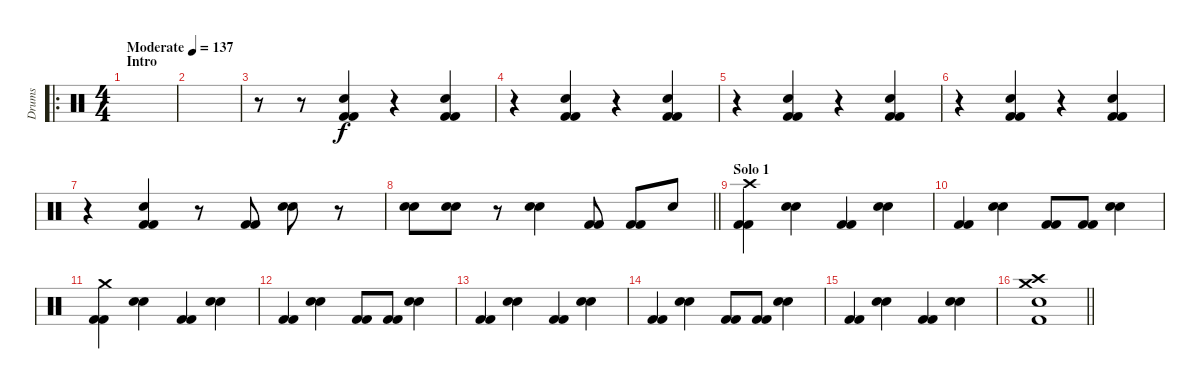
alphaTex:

\track ("Drums" "Drums") {instrument percussion}
\staff {score}
\articulation defaults
\ro
\ts (4 4)
\section ("" "Intro")
\tempo (137 "Moderate")
\clef neutral
\ks c
|
|
r.8 r.8 ("Kick (hit) 2" "Kick (hit) 2" "Electric Snare (hit)").4 r.4 ("Kick (hit) 2" "Kick (hit) 2" "Electric Snare (hit)").4 |
r.4 ("Kick (hit) 2" "Kick (hit) 2" "Electric Snare (hit)").4 r.4 ("Kick (hit) 2" "Kick (hit) 2" "Electric Snare (hit)").4 |
r.4 ("Kick (hit) 2" "Kick (hit) 2" "Electric Snare (hit)").4 r.4 ("Kick (hit) 2" "Kick (hit) 2" "Electric Snare (hit)").4 |
r.4 ("Kick (hit) 2" "Kick (hit) 2" "Electric Snare (hit)").4 r.4 ("Kick (hit) 2" "Kick (hit) 2" "Electric Snare (hit)").4 |
r.4 ("Kick (hit) 2" "Kick (hit) 2" "Electric Snare (hit)").4 r.8 ("Kick (hit) 2" "Kick (hit) 2").8 ("Electric Snare (hit)" "Electric Snare (hit)").8 r.8 |
\barLineRight lightlight
("Electric Snare (hit)" "Electric Snare (hit)").8 ("Electric Snare (hit)" "Electric Snare (hit)").8 r.8 ("Electric Snare (hit)" "Electric Snare (hit)").4 ("Kick (hit) 2" "Kick (hit) 2").8 ("Kick (hit) 2" "Kick (hit) 2").8 "Electric Snare (hit)".8 |
\section ("" "Solo 1")
("Kick (hit) 2" "Kick (hit) 2" "Crash high (hit)").4 ("Electric Snare (hit)" "Electric Snare (hit)").4 ("Kick (hit) 2" "Kick (hit) 2").4 ("Electric Snare (hit)" "Electric Snare (hit)").4 |
("Kick (hit) 2" "Kick (hit) 2").4 ("Electric Snare (hit)" "Electric Snare (hit)").4 ("Kick (hit) 2" "Kick (hit) 2").8 ("Kick (hit) 2" "Kick (hit) 2").8 ("Electric Snare (hit)" "Electric Snare (hit)").4 |
("Kick (hit) 2" "Kick (hit) 2" "Crash medium (hit)").4 ("Electric Snare (hit)" "Electric Snare (hit)").4 ("Kick (hit) 2" "Kick (hit) 2").4 ("Electric Snare (hit)" "Electric Snare (hit)").4 |
("Kick (hit) 2" "Kick (hit) 2").4 ("Electric Snare (hit)" "Electric Snare (hit)").4 ("Kick (hit) 2" "Kick (hit) 2").8 ("Kick (hit) 2" "Kick (hit) 2").8 ("Electric Snare (hit)" "Electric Snare (hit)").4 |
("Kick (hit) 2" "Kick (hit) 2").4 ("Electric Snare (hit)" "Electric Snare (hit)").4 ("Kick (hit) 2" "Kick (hit) 2").4 ("Electric Snare (hit)" "Electric Snare (hit)").4 |
("Kick (hit) 2" "Kick (hit) 2").4 ("Electric Snare (hit)" "Electric Snare (hit)").4 ("Kick (hit) 2" "Kick (hit) 2").8 ("Kick (hit) 2" "Kick (hit) 2").8 ("Electric Snare (hit)" "Electric Snare (hit)").4 |
("Kick (hit) 2" "Kick (hit) 2").4 ("Electric Snare (hit)" "Electric Snare (hit)").4 ("Kick (hit) 2" "Kick (hit) 2").4 ("Electric Snare (hit)" "Electric Snare (hit)").4 |
\barLineRight lightlight
("Crash high (hit)" "Crash medium (hit)" "Electric Snare (hit)" "Kick (hit) 2").1
